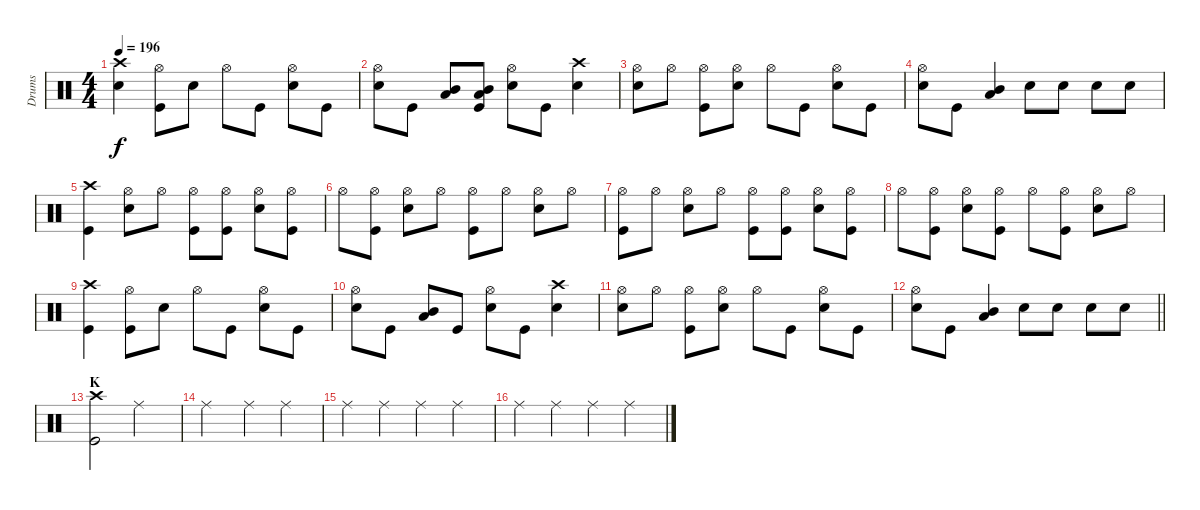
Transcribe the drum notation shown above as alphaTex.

\track ("Drums" "Drums") {instrument percussion}
\staff {score}
\articulation defaults
\ts (4 4)
\tempo 196
\clef neutral
\ks c
("Crash high (hit)" "Electric Snare (hit)").4{dy f} ("Hi-Hat (open)" "Kick (hit)").8 "Electric Snare (hit)".8 "Hi-Hat (open)".8 "Kick (hit)".8 ("Hi-Hat (open)" "Electric Snare (hit)").8 "Kick (hit)".8 |
("Hi-Hat (open)" "Electric Snare (hit)").8 "Kick (hit)".8 ("Mid Tom (hit)" "Low Tom (hit)").8 ("Mid Tom (hit)" "Low Tom (hit)" "Kick (hit)").8 ("Hi-Hat (open)" "Electric Snare (hit)").8 "Kick (hit)".8 ("Crash high (hit)" "Electric Snare (hit)").4 |
("Hi-Hat (open)" "Electric Snare (hit)").8 "Hi-Hat (open)".8 ("Hi-Hat (open)" "Kick (hit)").8 ("Hi-Hat (open)" "Electric Snare (hit)").8 "Hi-Hat (open)".8 "Kick (hit)".8 ("Hi-Hat (open)" "Electric Snare (hit)").8 "Kick (hit)".8 |
("Hi-Hat (open)" "Electric Snare (hit)").8 "Kick (hit)".8 ("Mid Tom (hit)" "Low Tom (hit)").4 "Electric Snare (hit)".8 "Electric Snare (hit)".8 "Electric Snare (hit)".8 "Electric Snare (hit)".8 |
("Crash high (hit)" "Kick (hit)").4 ("Hi-Hat (open)" "Electric Snare (hit)").8 "Hi-Hat (open)".8 ("Hi-Hat (open)" "Kick (hit)").8 ("Hi-Hat (open)" "Kick (hit)").8 ("Hi-Hat (open)" "Electric Snare (hit)").8 ("Hi-Hat (open)" "Kick (hit)").8 |
"Hi-Hat (open)".8 ("Hi-Hat (open)" "Kick (hit)").8 ("Hi-Hat (open)" "Electric Snare (hit)").8 "Hi-Hat (open)".8 ("Hi-Hat (open)" "Kick (hit)").8 "Hi-Hat (open)".8 ("Hi-Hat (open)" "Electric Snare (hit)").8 "Hi-Hat (open)".8 |
("Hi-Hat (open)" "Kick (hit)").8 "Hi-Hat (open)".8 ("Hi-Hat (open)" "Electric Snare (hit)").8 "Hi-Hat (open)".8 ("Hi-Hat (open)" "Kick (hit)").8 ("Hi-Hat (open)" "Kick (hit)").8 ("Hi-Hat (open)" "Electric Snare (hit)").8 ("Hi-Hat (open)" "Kick (hit)").8 |
"Hi-Hat (open)".8 ("Hi-Hat (open)" "Kick (hit)").8 ("Hi-Hat (open)" "Electric Snare (hit)").8 ("Hi-Hat (open)" "Kick (hit)").8 "Hi-Hat (open)".8 ("Hi-Hat (open)" "Kick (hit)").8 ("Hi-Hat (open)" "Electric Snare (hit)").8 "Hi-Hat (open)".8 |
("Crash high (hit)" "Kick (hit)").4 ("Hi-Hat (open)" "Kick (hit)").8 "Electric Snare (hit)".8 "Hi-Hat (open)".8 "Kick (hit)".8 ("Hi-Hat (open)" "Electric Snare (hit)").8 "Kick (hit)".8 |
("Hi-Hat (open)" "Electric Snare (hit)").8 "Kick (hit)".8 ("Mid Tom (hit)" "Low Tom (hit)").8 "Kick (hit)".8 ("Hi-Hat (open)" "Electric Snare (hit)").8 "Kick (hit)".8 ("Crash high (hit)" "Electric Snare (hit)").4 |
("Hi-Hat (open)" "Electric Snare (hit)").8 "Hi-Hat (open)".8 ("Hi-Hat (open)" "Kick (hit)").8 ("Hi-Hat (open)" "Electric Snare (hit)").8 "Hi-Hat (open)".8 "Kick (hit)".8 ("Hi-Hat (open)" "Electric Snare (hit)").8 "Kick (hit)".8 |
\barLineRight lightlight
("Hi-Hat (open)" "Electric Snare (hit)").8 "Kick (hit)".8 ("Mid Tom (hit)" "Low Tom (hit)").4 "Electric Snare (hit)".8 "Electric Snare (hit)".8 "Electric Snare (hit)".8 "Electric Snare (hit)".8 |
\section ("" "K")
("Crash high (hit)" "Kick (hit)").2 "Ride (middle)".2 |
"Ride (middle)".2 "Ride (middle)".4 "Ride (middle)".4 |
"Ride (middle)".4 "Ride (middle)".4 "Ride (middle)".4 "Ride (middle)".4 |
"Ride (middle)".4 "Ride (middle)".4 "Ride (middle)".4 "Ride (middle)".4
